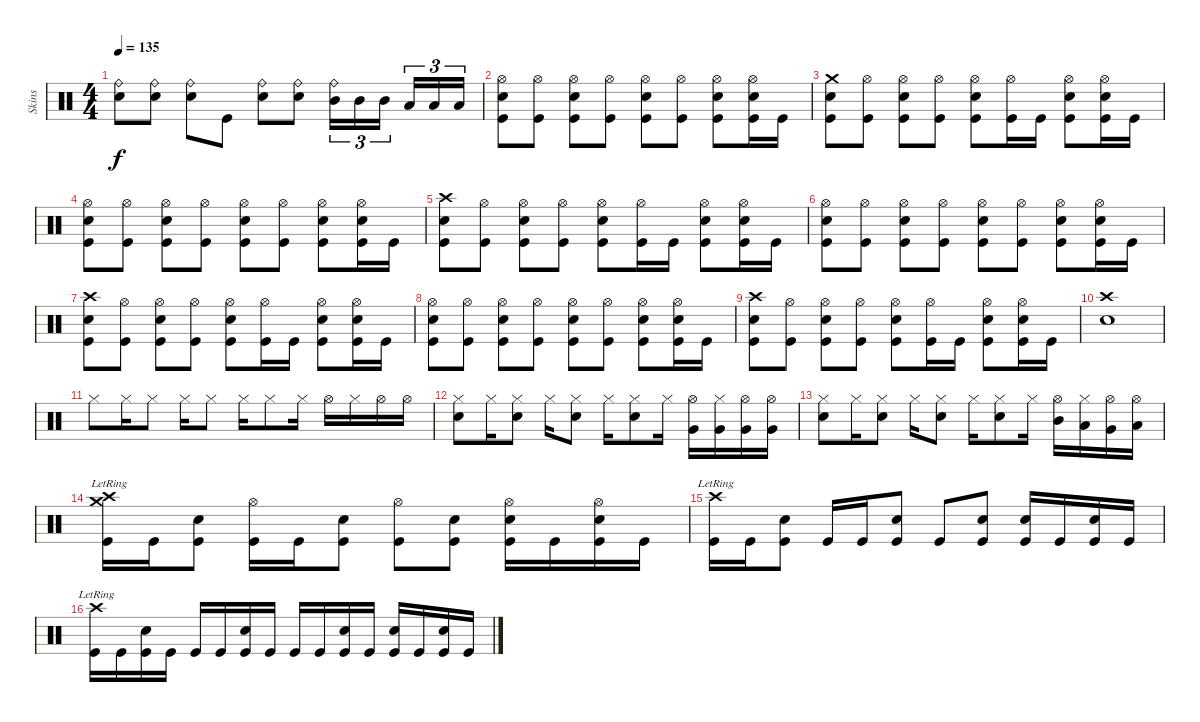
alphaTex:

\track ("Skins" "Skins") {instrument percussion}
\staff {score}
\articulation defaults
\ts (4 4)
\tempo 135
\clef neutral
\ks c
("Ride (bell)" "Snare (hit) 2").8{dy f} ("Ride (bell)" "Snare (hit) 2").8 ("Ride (bell)" "Snare (hit) 2").8 "Kick (hit)".8 ("Ride (bell)" "Snare (hit) 2").8 ("Ride (bell)" "Electric Snare (hit)").8 ("Ride (bell)" "Mid Tom (hit)").16{tu (3 2)} "Mid Tom (hit)".16{tu (3 2)} "Mid Tom (hit)".16{tu (3 2)} "Low Tom (hit)".16{tu (3 2)} "Low Tom (hit)".16{tu (3 2)} "Low Tom (hit)".16{tu (3 2)} |
("Hi-Hat (open)" "Snare (hit) 2" "Kick (hit)").8 ("Hi-Hat (open)" "Kick (hit)").8 ("Hi-Hat (open)" "Snare (hit) 2" "Kick (hit)").8 ("Hi-Hat (open)" "Kick (hit)").8 ("Hi-Hat (open)" "Snare (hit) 2" "Kick (hit)").8 ("Hi-Hat (open)" "Kick (hit)").8 ("Hi-Hat (open)" "Electric Snare (hit)" "Kick (hit)").8 ("Hi-Hat (open)" "Electric Snare (hit)" "Kick (hit)").16 "Kick (hit)".16 |
("Crash medium (hit)" "Snare (hit) 2" "Kick (hit)").8 ("Hi-Hat (open)" "Kick (hit)").8 ("Hi-Hat (open)" "Snare (hit) 2" "Kick (hit)").8 ("Hi-Hat (open)" "Kick (hit)").8 ("Hi-Hat (open)" "Snare (hit) 2" "Kick (hit)").8 ("Hi-Hat (open)" "Kick (hit)").16 "Kick (hit)".16 ("Hi-Hat (open)" "Electric Snare (hit)" "Kick (hit)").8 ("Hi-Hat (open)" "Electric Snare (hit)" "Kick (hit)").16 "Kick (hit)".16 |
("Hi-Hat (open)" "Snare (hit) 2" "Kick (hit)").8 ("Hi-Hat (open)" "Kick (hit)").8 ("Hi-Hat (open)" "Snare (hit) 2" "Kick (hit)").8 ("Hi-Hat (open)" "Kick (hit)").8 ("Hi-Hat (open)" "Snare (hit) 2" "Kick (hit)").8 ("Hi-Hat (open)" "Kick (hit)").8 ("Hi-Hat (open)" "Electric Snare (hit)" "Kick (hit)").8 ("Hi-Hat (open)" "Electric Snare (hit)" "Kick (hit)").16 "Kick (hit)".16 |
("Crash high (hit)" "Snare (hit) 2" "Kick (hit)").8 ("Hi-Hat (open)" "Kick (hit)").8 ("Hi-Hat (open)" "Snare (hit) 2" "Kick (hit)").8 ("Hi-Hat (open)" "Kick (hit)").8 ("Hi-Hat (open)" "Snare (hit) 2" "Kick (hit)").8 ("Hi-Hat (open)" "Kick (hit)").16 "Kick (hit)".16 ("Hi-Hat (open)" "Electric Snare (hit)" "Kick (hit)").8 ("Hi-Hat (open)" "Electric Snare (hit)" "Kick (hit)").16 "Kick (hit)".16 |
("Hi-Hat (open)" "Snare (hit) 2" "Kick (hit)").8 ("Hi-Hat (open)" "Kick (hit)").8 ("Hi-Hat (open)" "Snare (hit) 2" "Kick (hit)").8 ("Hi-Hat (open)" "Kick (hit)").8 ("Hi-Hat (open)" "Snare (hit) 2" "Kick (hit)").8 ("Hi-Hat (open)" "Kick (hit)").8 ("Hi-Hat (open)" "Electric Snare (hit)" "Kick (hit)").8 ("Hi-Hat (open)" "Electric Snare (hit)" "Kick (hit)").16 "Kick (hit)".16 |
("Crash high (hit)" "Snare (hit) 2" "Kick (hit)").8 ("Hi-Hat (open)" "Kick (hit)").8 ("Hi-Hat (open)" "Snare (hit) 2" "Kick (hit)").8 ("Hi-Hat (open)" "Kick (hit)").8 ("Hi-Hat (open)" "Snare (hit) 2" "Kick (hit)").8 ("Hi-Hat (open)" "Kick (hit)").16 "Kick (hit)".16 ("Hi-Hat (open)" "Electric Snare (hit)" "Kick (hit)").8 ("Hi-Hat (open)" "Electric Snare (hit)" "Kick (hit)").16 "Kick (hit)".16 |
("Hi-Hat (open)" "Snare (hit) 2" "Kick (hit)").8 ("Hi-Hat (open)" "Kick (hit)").8 ("Hi-Hat (open)" "Snare (hit) 2" "Kick (hit)").8 ("Hi-Hat (open)" "Kick (hit)").8 ("Hi-Hat (open)" "Snare (hit) 2" "Kick (hit)").8 ("Hi-Hat (open)" "Kick (hit)").8 ("Hi-Hat (open)" "Electric Snare (hit)" "Kick (hit)").8 ("Hi-Hat (open)" "Electric Snare (hit)" "Kick (hit)").16 "Kick (hit)".16 |
("Crash high (hit)" "Snare (hit) 2" "Kick (hit)").8 ("Hi-Hat (open)" "Kick (hit)").8 ("Hi-Hat (open)" "Snare (hit) 2" "Kick (hit)").8 ("Hi-Hat (open)" "Kick (hit)").8 ("Hi-Hat (open)" "Snare (hit) 2" "Kick (hit)").8 ("Hi-Hat (open)" "Kick (hit)").16 "Kick (hit)".16 ("Hi-Hat (open)" "Electric Snare (hit)" "Kick (hit)").8 ("Hi-Hat (open)" "Electric Snare (hit)" "Kick (hit)").16 "Kick (hit)".16 |
("Crash high (hit)" "Electric Snare (hit)").1 |
"Hi-Hat (closed)".8 "Hi-Hat (closed)".16 "Hi-Hat (closed)".8 "Hi-Hat (closed)".16 "Hi-Hat (closed)".8 "Hi-Hat (closed)".16 "Hi-Hat (closed)".8 "Hi-Hat (closed)".16 "Hi-Hat (open)".16 "Hi-Hat (closed)".16 "Hi-Hat (open)".16 "Hi-Hat (open)".16 |
("Hi-Hat (closed)" "Electric Snare (hit)").8 "Hi-Hat (closed)".16 ("Hi-Hat (closed)" "Electric Snare (hit)").8 "Hi-Hat (closed)".16 ("Hi-Hat (closed)" "Electric Snare (hit)").8 "Hi-Hat (closed)".16 ("Hi-Hat (closed)" "Electric Snare (hit)").8 "Hi-Hat (closed)".16 ("Hi-Hat (open)" "Very Low Tom (hit)").16 ("Hi-Hat (closed)" "Very Low Tom (hit)").16 ("Hi-Hat (open)" "Very Low Tom (hit)").16 ("Hi-Hat (open)" "Very Low Tom (hit)").16 |
("Hi-Hat (closed)" "Electric Snare (hit)").8 "Hi-Hat (closed)".16 ("Hi-Hat (closed)" "Electric Snare (hit)").8 "Hi-Hat (closed)".16 ("Hi-Hat (closed)" "Electric Snare (hit)").8 "Hi-Hat (closed)".16 ("Hi-Hat (closed)" "Electric Snare (hit)").8 "Hi-Hat (closed)".16 ("Hi-Hat (open)" "Mid Tom (hit)").16 ("Hi-Hat (closed)" "Low Tom (hit)").16 ("Hi-Hat (open)" "Very Low Tom (hit)").16 ("Hi-Hat (open)" "Low Floor Tom (hit)").16 |
("Kick (hit)" "Crash high (hit)"{lr} "Crash medium (hit)"{lr}).16 "Kick (hit)".16 ("Kick (hit)" "Electric Snare (hit)").8 ("Kick (hit)" "Hi-Hat (open)").16 "Kick (hit)".16 ("Kick (hit)" "Electric Snare (hit)").8 ("Kick (hit)" "Hi-Hat (open)").8 ("Kick (hit)" "Electric Snare (hit)").8 ("Kick (hit)" "Electric Snare (hit)" "Hi-Hat (open)").16 "Kick (hit)".16 ("Kick (hit)" "Electric Snare (hit)" "Hi-Hat (open)").16 "Kick (hit)".16 |
("Kick (hit)" "Crash high (hit)"{lr}).16 "Kick (hit)".16 ("Kick (hit)" "Electric Snare (hit)").8 "Kick (hit)".16 "Kick (hit)".16 ("Kick (hit)" "Electric Snare (hit)").8 "Kick (hit)".8 ("Kick (hit)" "Electric Snare (hit)").8 ("Kick (hit)" "Electric Snare (hit)").16 "Kick (hit)".16 ("Kick (hit)" "Electric Snare (hit)").16 "Kick (hit)".16 |
("Kick (hit)" "Crash high (hit)"{lr}).16 "Kick (hit)".16 ("Kick (hit)" "Electric Snare (hit)").16 "Kick (hit)".16 "Kick (hit)".16 "Kick (hit)".16 ("Kick (hit)" "Electric Snare (hit)").16 "Kick (hit)".16 "Kick (hit)".16 "Kick (hit)".16 ("Kick (hit)" "Electric Snare (hit)").16 "Kick (hit)".16 ("Kick (hit)" "Electric Snare (hit)").16 "Kick (hit)".16 ("Kick (hit)" "Electric Snare (hit)").16 "Kick (hit)".16
